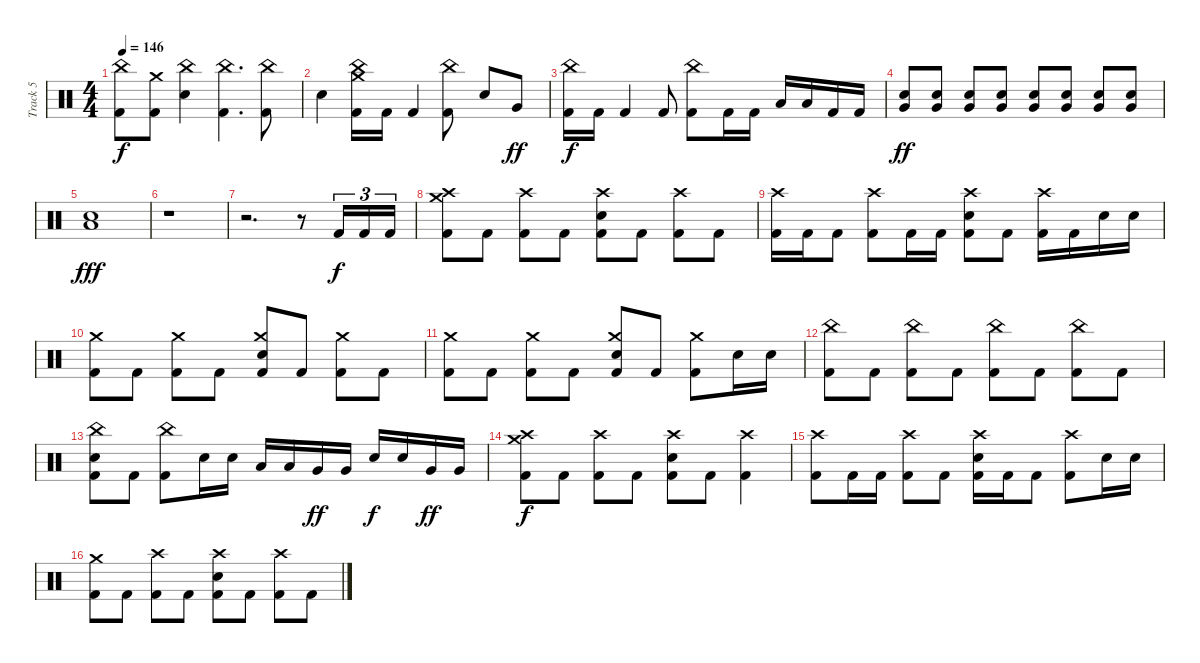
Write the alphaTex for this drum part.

\track ("Track 5" "Track 5") {instrument percussion}
\staff {score}
\articulation defaults
\ts (4 4)
\tempo 146
\clef neutral
\ks c
("China (hit)" "Kick (hit) 2").8{dy f} ("Crash medium (hit)" "Kick (hit) 2").8 ("China (hit)" "Electric Snare (hit)").4 ("China (hit)" "Kick (hit) 2").4{d} ("China (hit)" "Kick (hit) 2").8 |
"Electric Snare (hit)".4 ("Crash medium (hit)" "China (hit)" "Kick (hit) 2").16 "Kick (hit) 2".16 "Kick (hit) 2".4 ("China (hit)" "Kick (hit) 2").8 "Electric Snare (hit)".8 "Very Low Tom (hit)".8{dy ff} |
("China (hit)" "Kick (hit) 2").16{dy f} "Kick (hit) 2".16 "Kick (hit) 2".4 "Kick (hit) 2".8 ("China (hit)" "Kick (hit) 2").8 "Kick (hit) 2".16 "Kick (hit) 2".16 "Low Tom (hit)".16 "Low Tom (hit)".16 "Kick (hit) 2".16 "Kick (hit) 2".16 |
("Electric Snare (hit)" "Very Low Tom (hit)").8{dy ff} ("Electric Snare (hit)" "Very Low Tom (hit)").8 ("Electric Snare (hit)" "Very Low Tom (hit)").8 ("Electric Snare (hit)" "Very Low Tom (hit)").8 ("Electric Snare (hit)" "Very Low Tom (hit)").8 ("Electric Snare (hit)" "Very Low Tom (hit)").8 ("Electric Snare (hit)" "Very Low Tom (hit)").8 ("Electric Snare (hit)" "Very Low Tom (hit)").8 |
("Electric Snare (hit)" "Low Floor Tom (hit)").1{dy fff} |
r.1 |
r.2{d} r.8 "Kick (hit) 2".16{tu (3 2) dy f} "Kick (hit) 2".16{tu (3 2)} "Kick (hit) 2".16{tu (3 2)} |
("Crash medium (hit)" "Crash high (hit)" "Kick (hit) 2").8 "Kick (hit) 2".8 ("Crash high (hit)" "Kick (hit) 2").8 "Kick (hit) 2".8 ("Crash high (hit)" "Electric Snare (hit)" "Kick (hit) 2").8 "Kick (hit) 2".8 ("Crash high (hit)" "Kick (hit) 2").8 "Kick (hit) 2".8 |
("Crash high (hit)" "Kick (hit) 2").16 "Kick (hit) 2".16 "Kick (hit) 2".8 ("Crash high (hit)" "Kick (hit) 2").8 "Kick (hit) 2".16 "Kick (hit) 2".16 ("Crash high (hit)" "Electric Snare (hit)" "Kick (hit) 2").8 "Kick (hit) 2".8 ("Crash high (hit)" "Kick (hit) 2").16 "Kick (hit) 2".16 "Electric Snare (hit)".16 "Electric Snare (hit)".16 |
("Crash medium (hit)" "Kick (hit) 2").8 "Kick (hit) 2".8 ("Crash medium (hit)" "Kick (hit) 2").8 "Kick (hit) 2".8 ("Crash medium (hit)" "Electric Snare (hit)" "Kick (hit) 2").8 "Kick (hit) 2".8 ("Crash medium (hit)" "Kick (hit) 2").8 "Kick (hit) 2".8 |
("Crash medium (hit)" "Kick (hit) 2").8 "Kick (hit) 2".8 ("Crash medium (hit)" "Kick (hit) 2").8 "Kick (hit) 2".8 ("Crash medium (hit)" "Electric Snare (hit)" "Kick (hit) 2").8 "Kick (hit) 2".8 ("Crash medium (hit)" "Kick (hit) 2").8 "Electric Snare (hit)".16 "Electric Snare (hit)".16 |
("China (hit)" "Kick (hit) 2").8 "Kick (hit) 2".8 ("China (hit)" "Kick (hit) 2").8 "Kick (hit) 2".8 ("China (hit)" "Kick (hit) 2").8 "Kick (hit) 2".8 ("China (hit)" "Kick (hit) 2").8 "Kick (hit) 2".8 |
("China (hit)" "Electric Snare (hit)" "Kick (hit) 2").8 "Kick (hit) 2".8 ("China (hit)" "Kick (hit) 2").8 "Electric Snare (hit)".16 "Electric Snare (hit)".16 "Low Tom (hit)".16 "Low Tom (hit)".16 "Very Low Tom (hit)".16{dy ff} "Very Low Tom (hit)".16 "Electric Snare (hit)".16{dy f} "Electric Snare (hit)".16 "Very Low Tom (hit)".16{dy ff} "Very Low Tom (hit)".16 |
("Crash medium (hit)" "Crash high (hit)" "Kick (hit) 2").8{dy f} "Kick (hit) 2".8 ("Crash high (hit)" "Kick (hit) 2").8 "Kick (hit) 2".8 ("Crash high (hit)" "Electric Snare (hit)" "Kick (hit) 2").8 "Kick (hit) 2".8 ("Crash high (hit)" "Kick (hit) 2").4 |
("Crash high (hit)" "Kick (hit) 2").8 "Kick (hit) 2".16 "Kick (hit) 2".16 ("Crash high (hit)" "Kick (hit) 2").8 "Kick (hit) 2".8 ("Crash high (hit)" "Electric Snare (hit)" "Kick (hit) 2").16 "Kick (hit) 2".16 "Kick (hit) 2".8 ("Crash high (hit)" "Kick (hit) 2").8 "Electric Snare (hit)".16 "Electric Snare (hit)".16 |
("Crash medium (hit)" "Kick (hit) 2").8 "Kick (hit) 2".8 ("Crash high (hit)" "Kick (hit) 2").8 "Kick (hit) 2".8 ("Crash high (hit)" "Electric Snare (hit)" "Kick (hit) 2").8 "Kick (hit) 2".8 ("Crash high (hit)" "Kick (hit) 2").8 "Kick (hit) 2".8
